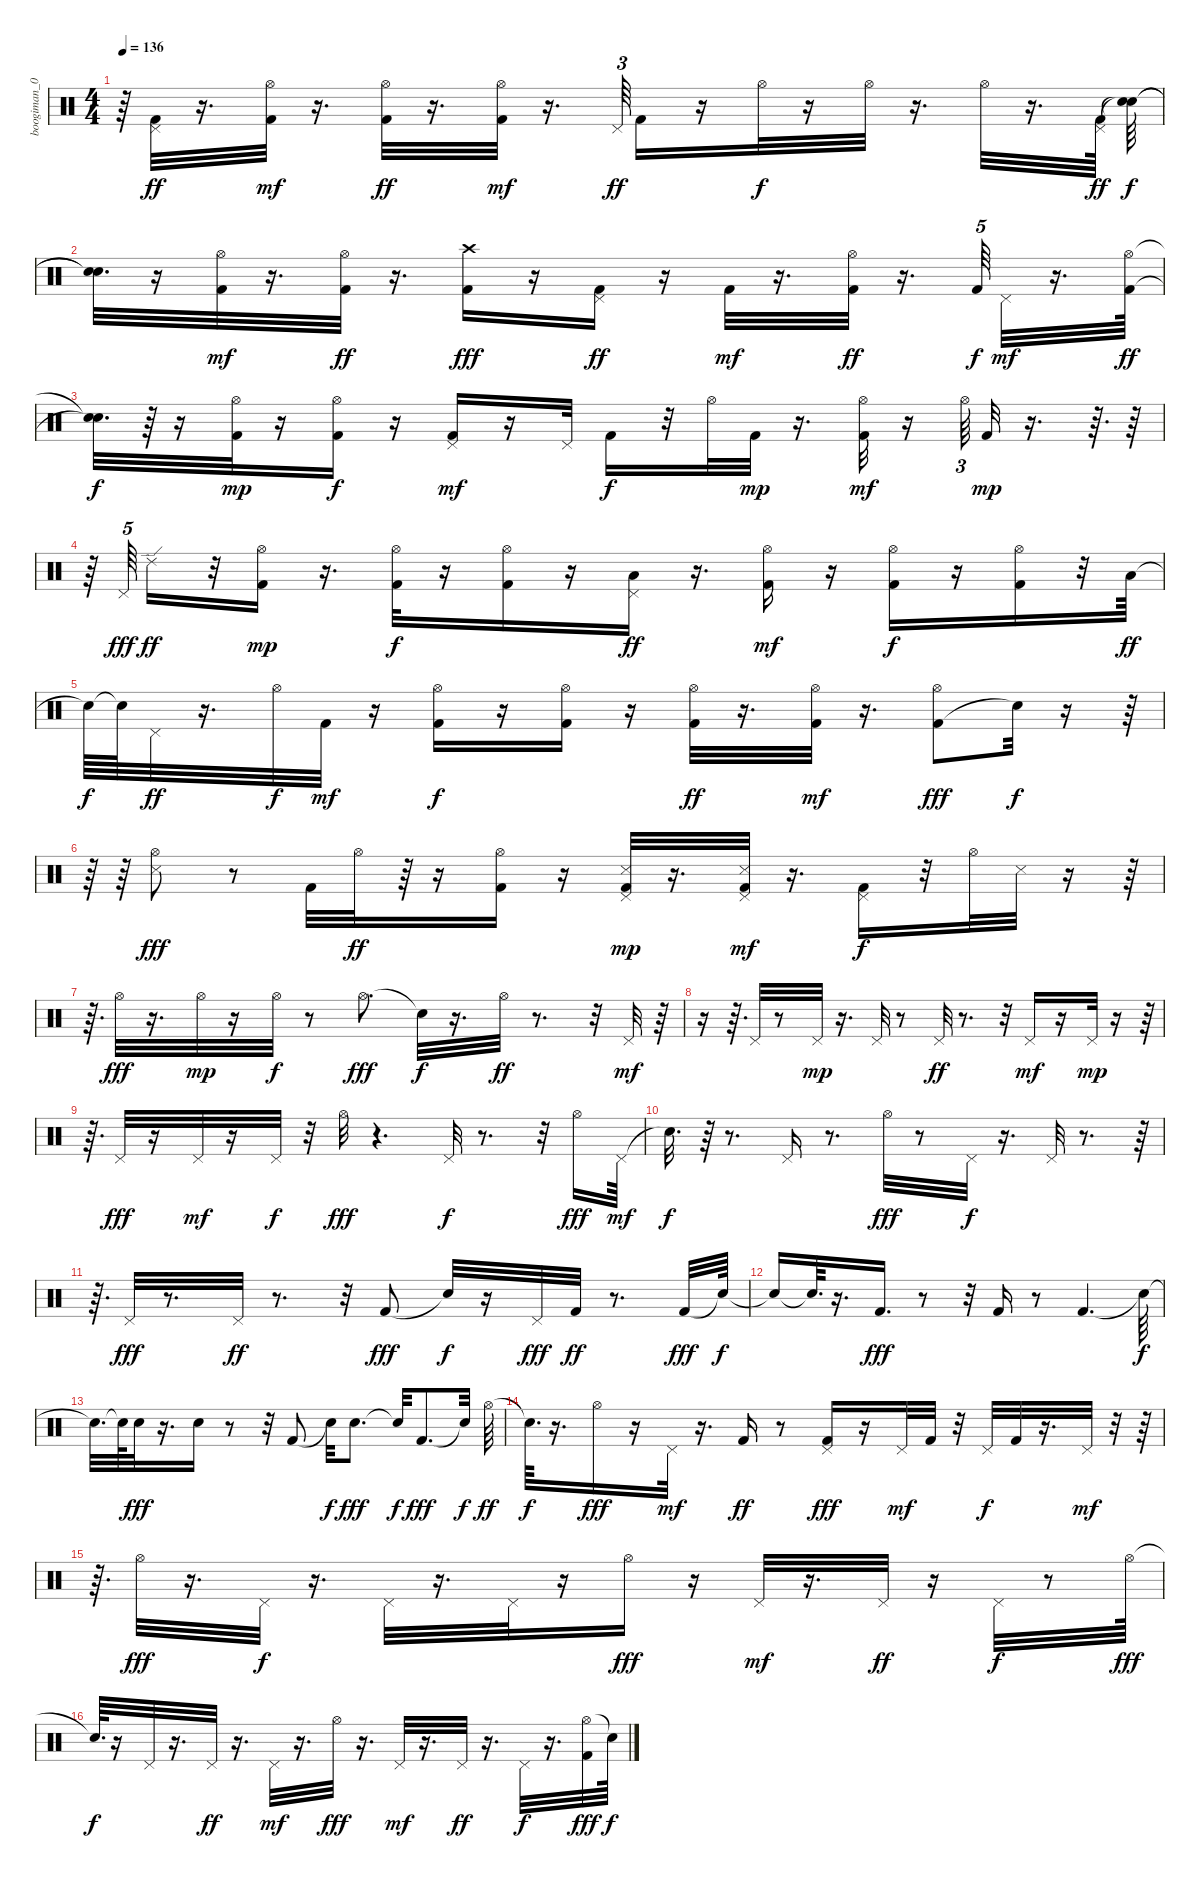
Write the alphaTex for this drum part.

\track ("boogiman_007@yahoo.com" "boogiman_0") {instrument percussion}
\staff {score}
\articulation defaults
\ts (4 4)
\tempo 136
\clef neutral
\ks c
r.64{dy mf} ("Pedal Hi-Hat (hit)" "Kick (hit) 2").32{dy ff} r.16{d} ("Hi-Hat (open)" "Kick (hit) 2").32{dy mf} r.16{d} ("Kick (hit) 2" "Hi-Hat (open)").32{dy ff} r.16{d} ("Kick (hit) 2" "Hi-Hat (open)").32{dy mf} r.16{d} "Pedal Hi-Hat (hit)".64{tu (3 2) dy ff} "Kick (hit) 2".16 r.16 "Hi-Hat (open)".32{dy f} r.16 "Hi-Hat (open)".32 r.16{d} "Hi-Hat (open)".32 r.16{d} ("Pedal Hi-Hat (hit)" "Kick (hit) 2").64{dy ff} ("Snare (hit)"{t} "Snare (hit)"{t}).64{dy f} |
("Snare (hit)"{t} "Snare (hit)"{t}).32{d} r.16 ("Kick (hit) 2" "Hi-Hat (open)").32{dy mf} r.16{d} ("Kick (hit) 2" "Hi-Hat (open)").32{dy ff} r.16{d} ("Kick (hit) 2" "Crash high (hit)").16{dy fff} r.16 ("Kick (hit) 2" "Pedal Hi-Hat (hit)").16{dy ff} r.16 "Kick (hit) 2".32{dy mf} r.16{d} ("Hi-Hat (open)" "Kick (hit) 2").32{dy ff} r.16{d} "Kick (hit) 2".64{tu (5 4) dy f} "Pedal Hi-Hat (hit)".32{dy mf} r.16{d} ("Hi-Hat (open)" "Kick (hit) 2").64{dy ff} |
("Snare (hit)"{t} "Snare (hit)"{t}).32{d dy f} r.64 r.16 ("Hi-Hat (open)" "Kick (hit) 2").32{dy mp} r.16 ("Hi-Hat (open)" "Kick (hit) 2").16{dy f} r.16 ("Pedal Hi-Hat (hit)" "Kick (hit) 2").16{dy mf} r.16 "Pedal Hi-Hat (hit)".32 "Kick (hit) 2".16{dy f} r.32 "Hi-Hat (open)".32 "Kick (hit) 2".32{dy mp} r.16{d} ("Kick (hit) 2" "Hi-Hat (open)").32{dy mf} r.16 "Hi-Hat (open)".64{tu (3 2)} "Kick (hit) 2".32{dy mp} r.16{d} r.64{d} r.64 |
r.64 "Pedal Hi-Hat (hit)".64{tu (5 4) dy fff} "Ride (edge) 2".16{dy ff} r.32 ("Hi-Hat (open)" "Kick (hit) 2").16{dy mp} r.16{d} ("Hi-Hat (open)" "Kick (hit) 2").32{dy f} r.16 ("Hi-Hat (open)" "Kick (hit) 2").16 r.16 ("Pedal Hi-Hat (hit)" "Low Tom (hit)").16{dy ff} r.16{d} ("Hi-Hat (open)" "Kick (hit) 2").16{dy mf} r.16 ("Hi-Hat (open)" "Kick (hit) 2").16{dy f} r.16 ("Kick (hit) 2" "Hi-Hat (open)").16 r.32 "Low Tom (hit)".64{dy ff} |
"Snare (hit)"{t}.64{dy f} "Snare (hit)"{t}.64 "Pedal Hi-Hat (hit)".32{dy ff} r.16{d} "Hi-Hat (open)".32{dy f} "Kick (hit) 2".32{dy mf} r.16 ("Hi-Hat (open)" "Kick (hit) 2").16{dy f} r.16 ("Kick (hit) 2" "Hi-Hat (open)").16 r.16 ("Hi-Hat (open)" "Kick (hit) 2").32{dy ff} r.16{d} ("Kick (hit) 2" "Hi-Hat (open)").32{dy mf} r.16{d} ("Kick (hit) 2" "Hi-Hat (open)").8{dy fff} "Snare (hit)"{t}.32{dy f} r.16 r.64 |
r.64 r.64 ("Snare (side stick) 3" "Hi-Hat (open)").8{dy fff} r.8 "Kick (hit) 2".32 "Hi-Hat (open)".32{dy ff} r.64 r.16 ("Kick (hit) 2" "Hi-Hat (open)").16 r.16 ("Pedal Hi-Hat (hit)" "Kick (hit) 2" "Snare (side stick) 3").32{dy mp} r.16{d} ("Kick (hit) 2" "Pedal Hi-Hat (hit)" "Snare (side stick) 3").32{dy mf} r.16{d} ("Kick (hit) 2" "Pedal Hi-Hat (hit)").16{dy f} r.32 "Hi-Hat (open)".32 "Snare (side stick) 3".32 r.16 r.64 |
r.64{d} "Hi-Hat (open)".32{dy fff} r.16{d} "Hi-Hat (open)".32{dy mp} r.16 "Hi-Hat (open)".32{dy f} r.8 "Hi-Hat (open)".8{d dy fff} "Snare (hit)"{t}.32{dy f} r.16{d} "Hi-Hat (open)".32{dy ff} r.8{d} r.32 "Pedal Hi-Hat (hit)".32{dy mf} r.64 |
r.16 r.64{d} "Pedal Hi-Hat (hit)".32 r.8 "Pedal Hi-Hat (hit)".32{dy mp} r.16{d} "Pedal Hi-Hat (hit)".32 r.8 "Pedal Hi-Hat (hit)".32{dy ff} r.8{d} r.32 "Pedal Hi-Hat (hit)".16{dy mf} r.16 "Pedal Hi-Hat (hit)".32{dy mp} r.16 r.64 |
r.64{d} "Pedal Hi-Hat (hit)".32{dy fff} r.16 "Pedal Hi-Hat (hit)".32{dy mf} r.16 "Pedal Hi-Hat (hit)".32{dy f} r.32 "Hi-Hat (open)".32{dy fff} r.4{d} "Pedal Hi-Hat (hit)".32{dy f} r.8{d} r.32 "Hi-Hat (open)".16{dy fff} "Pedal Hi-Hat (hit)".64{dy mf} |
"Snare (hit)"{t}.32{d dy f} r.64 r.8{d} "Pedal Hi-Hat (hit)".16 r.8{d} "Hi-Hat (open)".32{dy fff} r.8 "Pedal Hi-Hat (hit)".32{dy f} r.16{d} "Pedal Hi-Hat (hit)".32 r.8{d} r.64 |
r.64{d} "Pedal Hi-Hat (hit)".32{dy fff} r.8{d} "Pedal Hi-Hat (hit)".32{dy ff} r.8{d} r.32 "Kick (hit) 2".8{dy fff} "Snare (hit)"{t}.32{dy f} r.16 "Pedal Hi-Hat (hit)".32{dy fff} "Kick (hit) 2".32{dy ff} r.8{d} "Kick (hit) 2".32{dy fff} "Snare (hit)"{t}.64{dy f} |
"Snare (hit)"{t}.16 "Snare (hit)"{t}.64{d} r.16{d} "Kick (hit) 2".16{d dy fff} r.8 r.32 "Kick (hit) 2".16 r.8 "Kick (hit) 2".4{d} "Snare (hit)"{t}.64{dy f} |
"Snare (hit)"{t}.32{d} "Snare (hit)"{t}.64 "Snare (hit) 2".32{dy fff} r.16{d} "Snare (hit) 2".16 r.8 r.32 "Kick (hit) 2".8 "Snare (hit)"{t}.32{dy f} "Electric Snare (hit)".8{d dy fff} "Snare (hit)"{t}.32{dy f} "Kick (hit) 2".8{d dy fff} "Snare (hit)"{t}.32{dy f} "Hi-Hat (open)".64{dy ff} |
"Snare (hit)"{t}.64{d dy f} r.16{d} "Hi-Hat (open)".16{dy fff} r.16 "Pedal Hi-Hat (hit)".32{dy mf} r.16{d} "Kick (hit) 2".16{dy ff} r.8 ("Pedal Hi-Hat (hit)" "Kick (hit) 2").16{dy fff} r.16 "Pedal Hi-Hat (hit)".32{dy mf} "Kick (hit) 2".32 r.32 "Pedal Hi-Hat (hit)".32{dy f} "Kick (hit) 2".32 r.16{d} "Pedal Hi-Hat (hit)".32{dy mf} r.32 r.64 |
r.64{d} "Hi-Hat (open)".32{dy fff} r.16{d} "Pedal Hi-Hat (hit)".32{dy f} r.16{d} "Pedal Hi-Hat (hit)".32 r.16{d} "Pedal Hi-Hat (hit)".32 r.16 "Hi-Hat (open)".16{dy fff} r.16 "Pedal Hi-Hat (hit)".32{dy mf} r.16{d} "Pedal Hi-Hat (hit)".32{dy ff} r.16 "Pedal Hi-Hat (hit)".32{dy f} r.8 "Hi-Hat (open)".64{dy fff} |
"Snare (hit)"{t}.64{d dy f} r.16 "Pedal Hi-Hat (hit)".32 r.16{d} "Pedal Hi-Hat (hit)".32{dy ff} r.16{d} "Pedal Hi-Hat (hit)".32{dy mf} r.16{d} "Hi-Hat (open)".32{dy fff} r.16{d} "Pedal Hi-Hat (hit)".32{dy mf} r.16{d} "Pedal Hi-Hat (hit)".32{dy ff} r.16{d} "Pedal Hi-Hat (hit)".32{dy f} r.16{d} ("Hi-Hat (open)" "Kick (hit) 2").32{dy fff} "Snare (hit)"{t}.64{dy f}
